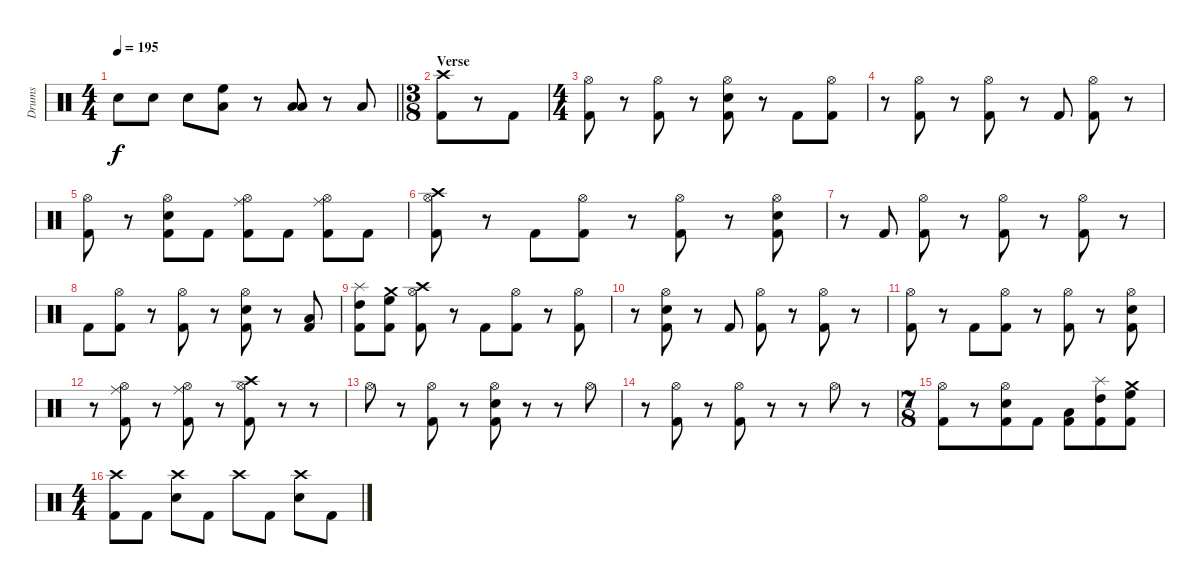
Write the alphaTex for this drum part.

\track ("Drums" "Drums") {instrument percussion}
\staff {score}
\articulation defaults
\ts (4 4)
\tempo 195
\clef neutral
\barLineRight lightlight
\ks c "Snare (hit) 2".8{dy f} "Snare (hit) 2".8 "Snare (hit) 2".8
("High Floor Tom (hit)" "Low Floor Tom (hit)").8 r.8 ("Low Tom (hit)" "Low Floor Tom (hit)").8 r.8 "Low Floor Tom (hit)".8 |
\ts (3 8)
\section ("" "Verse")
("Crash high (hit)" "Kick (hit) 2").8 r.8 "Kick (hit) 2".8 |
\ts (4 4)
("Hi-Hat (open)" "Kick (hit) 2").8 r.8 ("Hi-Hat (open)" "Kick (hit) 2").8 r.8 ("Hi-Hat (open)" "Snare (hit) 2" "Kick (hit) 2").8 r.8 "Kick (hit) 2".8 ("Hi-Hat (open)" "Kick (hit) 2").8 |
r.8 ("Hi-Hat (open)" "Kick (hit) 2").8 r.8 ("Hi-Hat (open)" "Kick (hit) 2").8 r.8 "Kick (hit) 2".8 ("Hi-Hat (open)" "Kick (hit) 2").8 r.8 |
("Hi-Hat (open)" "Kick (hit) 2").8 r.8 ("Hi-Hat (open)" "Snare (hit) 2" "Kick (hit) 2").8 "Kick (hit) 2".8 ("Ride (middle)" "Hi-Hat (open)" "Kick (hit) 2").8 "Kick (hit) 2".8 ("Ride (middle)" "Hi-Hat (open)" "Kick (hit) 2").8 "Kick (hit) 2".8 |
("Crash high (hit)" "Hi-Hat (open)" "Kick (hit) 2").8 r.8 "Kick (hit) 2".8 ("Hi-Hat (open)" "Kick (hit) 2").8 r.8 ("Hi-Hat (open)" "Kick (hit) 2").8 r.8 ("Hi-Hat (open)" "Snare (hit) 2" "Kick (hit) 2").8 |
r.8 "Kick (hit) 2".8 ("Hi-Hat (open)" "Kick (hit) 2").8 r.8 ("Hi-Hat (open)" "Kick (hit) 2").8 r.8 ("Hi-Hat (open)" "Kick (hit) 2").8 r.8 |
"Kick (hit) 2".8 ("Hi-Hat (open)" "Kick (hit) 2").8 r.8 ("Hi-Hat (open)" "Kick (hit) 2").8 r.8 ("Hi-Hat (open)" "Snare (hit) 2" "Kick (hit) 2").8 r.8 ("Low Tom (hit)" "Kick (hit) 2").8 |
("Splash (hit)" "High Tom (hit)" "Kick (hit) 2").8 ("Crash medium (hit)" "High Floor Tom (hit)" "Kick (hit) 2").8 ("Crash high (hit)" "Hi-Hat (open)" "Kick (hit) 2").8 r.8 "Kick (hit) 2".8 ("Hi-Hat (open)" "Kick (hit) 2").8 r.8 ("Hi-Hat (open)" "Kick (hit) 2").8 |
r.8 ("Hi-Hat (open)" "Snare (hit) 2" "Kick (hit) 2").8 r.8 "Kick (hit) 2".8 ("Hi-Hat (open)" "Kick (hit) 2").8 r.8 ("Hi-Hat (open)" "Kick (hit) 2").8 r.8 |
("Hi-Hat (open)" "Kick (hit) 2").8 r.8 "Kick (hit) 2".8 ("Hi-Hat (open)" "Kick (hit) 2").8 r.8 ("Hi-Hat (open)" "Kick (hit) 2").8 r.8 ("Hi-Hat (open)" "Snare (hit) 2" "Kick (hit) 2").8 |
r.8 ("Ride (middle)" "Hi-Hat (open)" "Kick (hit) 2").8 r.8 ("Ride (middle)" "Hi-Hat (open)" "Kick (hit) 2").8 r.8 ("Crash high (hit)" "Hi-Hat (open)" "Kick (hit) 2").8 r.8 r.8 |
"Hi-Hat (open)".8 r.8 ("Hi-Hat (open)" "Kick (hit) 2").8 r.8 ("Hi-Hat (open)" "Snare (hit) 2" "Kick (hit) 2").8 r.8 r.8 "Hi-Hat (open)".8 |
r.8 ("Hi-Hat (open)" "Kick (hit) 2").8 r.8 ("Hi-Hat (open)" "Kick (hit) 2").8 r.8 r.8 "Hi-Hat (open)".8 r.8 |
\ts (7 8)
("Hi-Hat (open)" "Kick (hit) 2").8 r.8 ("Hi-Hat (open)" "Snare (hit) 2" "Kick (hit) 2").8 "Kick (hit) 2".8 ("Low Tom (hit)" "Kick (hit) 2").8 ("Splash (hit)" "High Tom (hit)" "Kick (hit) 2").8 ("Crash medium (hit)" "High Floor Tom (hit)" "Kick (hit) 2").8 |
\ts (4 4)
("Crash high (hit)" "Kick (hit) 2").8 "Kick (hit) 2".8 ("Crash high (hit)" "Snare (hit) 2").8 "Kick (hit) 2".8 "Crash high (hit)".8 "Kick (hit) 2".8 ("Crash high (hit)" "Snare (hit) 2").8 "Kick (hit) 2".8
